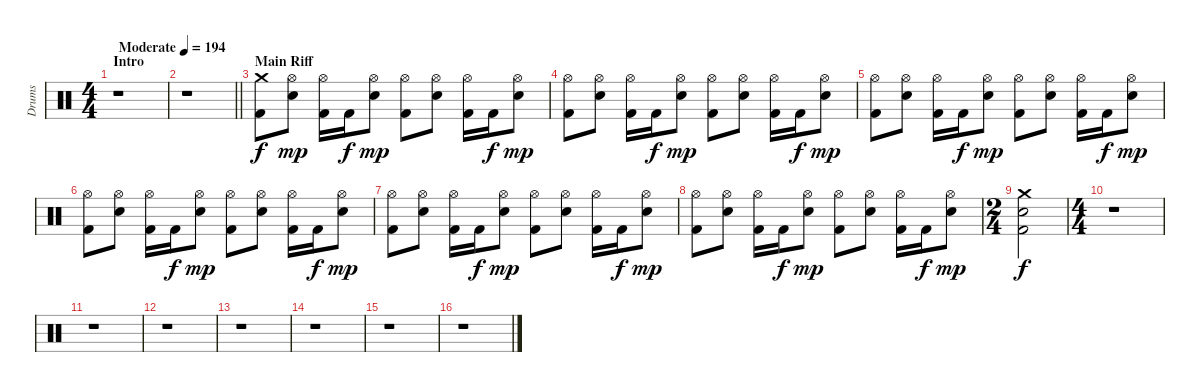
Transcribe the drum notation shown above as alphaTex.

\track ("Drums" "Drums") {instrument percussion}
\staff {score}
\articulation defaults
\ts (4 4)
\section ("" "Intro")
\tempo (194 "Moderate")
\clef neutral
\ks c
r.1{dy f} |
\barLineRight lightlight
r.1 |
\section ("" "Main Riff")
("Crash medium (hit)" "Kick (hit) 2").8 ("Hi-Hat (open)" "Snare (hit) 2").8{dy mp} ("Hi-Hat (open)" "Kick (hit) 2").16 "Kick (hit) 2".16{dy f} ("Hi-Hat (open)" "Snare (hit) 2").8{dy mp} ("Hi-Hat (open)" "Kick (hit) 2").8 ("Hi-Hat (open)" "Snare (hit) 2").8 ("Hi-Hat (open)" "Kick (hit) 2").16 "Kick (hit) 2".16{dy f} ("Hi-Hat (open)" "Snare (hit) 2").8{dy mp} |
("Hi-Hat (open)" "Kick (hit) 2").8 ("Hi-Hat (open)" "Snare (hit) 2").8 ("Hi-Hat (open)" "Kick (hit) 2").16 "Kick (hit) 2".16{dy f} ("Hi-Hat (open)" "Snare (hit) 2").8{dy mp} ("Hi-Hat (open)" "Kick (hit) 2").8 ("Hi-Hat (open)" "Snare (hit) 2").8 ("Hi-Hat (open)" "Kick (hit) 2").16 "Kick (hit) 2".16{dy f} ("Hi-Hat (open)" "Snare (hit) 2").8{dy mp} |
("Hi-Hat (open)" "Kick (hit) 2").8 ("Hi-Hat (open)" "Snare (hit) 2").8 ("Hi-Hat (open)" "Kick (hit) 2").16 "Kick (hit) 2".16{dy f} ("Hi-Hat (open)" "Snare (hit) 2").8{dy mp} ("Hi-Hat (open)" "Kick (hit) 2").8 ("Hi-Hat (open)" "Snare (hit) 2").8 ("Hi-Hat (open)" "Kick (hit) 2").16 "Kick (hit) 2".16{dy f} ("Hi-Hat (open)" "Snare (hit) 2").8{dy mp} |
("Hi-Hat (open)" "Kick (hit) 2").8 ("Hi-Hat (open)" "Snare (hit) 2").8 ("Hi-Hat (open)" "Kick (hit) 2").16 "Kick (hit) 2".16{dy f} ("Hi-Hat (open)" "Snare (hit) 2").8{dy mp} ("Hi-Hat (open)" "Kick (hit) 2").8 ("Hi-Hat (open)" "Snare (hit) 2").8 ("Hi-Hat (open)" "Kick (hit) 2").16 "Kick (hit) 2".16{dy f} ("Hi-Hat (open)" "Snare (hit) 2").8{dy mp} |
("Hi-Hat (open)" "Kick (hit) 2").8 ("Hi-Hat (open)" "Snare (hit) 2").8 ("Hi-Hat (open)" "Kick (hit) 2").16 "Kick (hit) 2".16{dy f} ("Hi-Hat (open)" "Snare (hit) 2").8{dy mp} ("Hi-Hat (open)" "Kick (hit) 2").8 ("Hi-Hat (open)" "Snare (hit) 2").8 ("Hi-Hat (open)" "Kick (hit) 2").16 "Kick (hit) 2".16{dy f} ("Hi-Hat (open)" "Snare (hit) 2").8{dy mp} |
("Hi-Hat (open)" "Kick (hit) 2").8 ("Hi-Hat (open)" "Snare (hit) 2").8 ("Hi-Hat (open)" "Kick (hit) 2").16 "Kick (hit) 2".16{dy f} ("Hi-Hat (open)" "Snare (hit) 2").8{dy mp} ("Hi-Hat (open)" "Kick (hit) 2").8 ("Hi-Hat (open)" "Snare (hit) 2").8 ("Hi-Hat (open)" "Kick (hit) 2").16 "Kick (hit) 2".16{dy f} ("Hi-Hat (open)" "Snare (hit) 2").8{dy mp} |
\ts (2 4)
("Crash medium (hit)" "Snare (hit) 2" "Kick (hit) 2").2{dy f} |
\ts (4 4)
r.1 |
r.1 |
r.1 |
r.1 |
r.1 |
r.1 |
r.1
